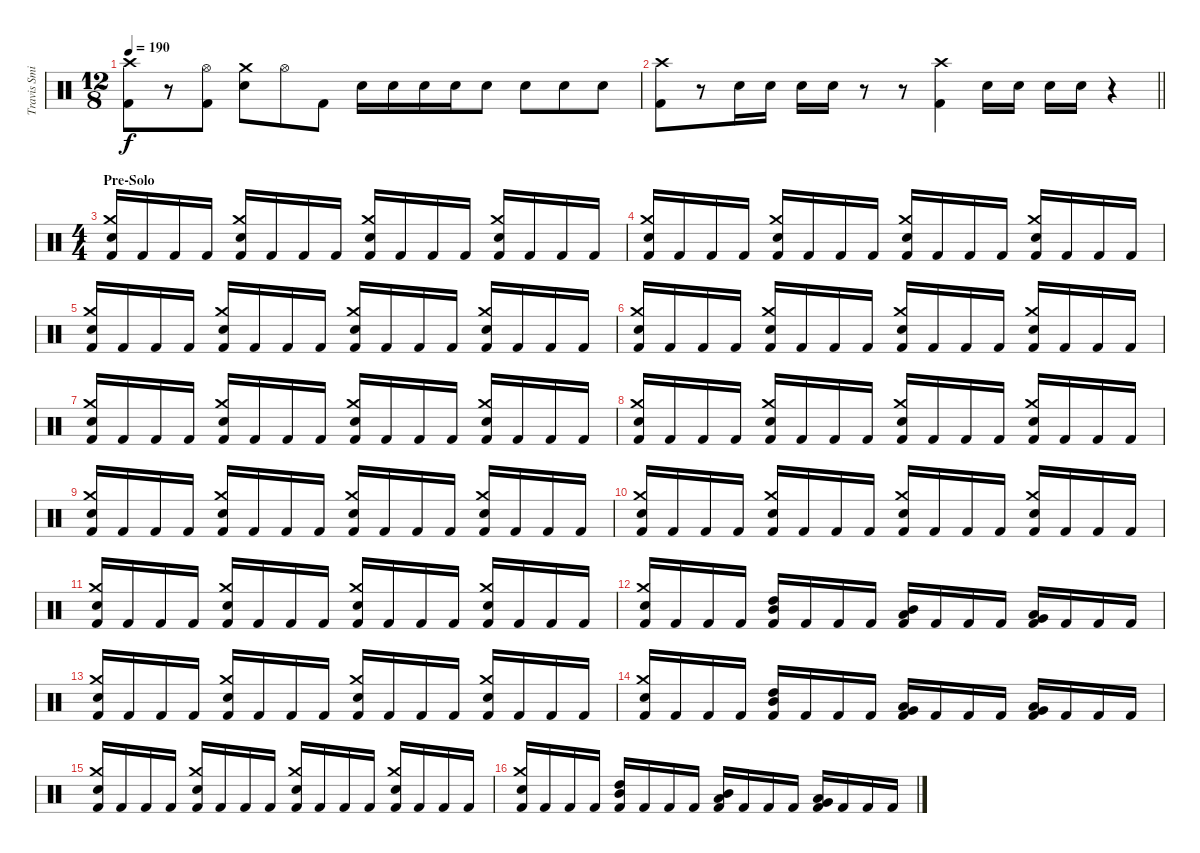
\track ("Travis Smith" "Travis Smi") {instrument percussion}
\staff {score}
\articulation defaults
\ts (12 8)
\tempo 190
\clef neutral
\ks c
("Crash high (hit)" "Kick (hit) 2").8{dy f} r.8 ("Hi-Hat (open)" "Kick (hit) 2").8 ("Crash medium (hit)" "Electric Snare (hit)").8 "Hi-Hat (open)".8 "Kick (hit) 2".8 "Electric Snare (hit)".16 "Electric Snare (hit)".16 "Electric Snare (hit)".16 "Electric Snare (hit)".16 "Electric Snare (hit)".8 "Electric Snare (hit)".8 "Electric Snare (hit)".8 "Electric Snare (hit)".8 |
\barLineRight lightlight
("Crash high (hit)" "Kick (hit) 2").8 r.8 "Electric Snare (hit)".16 "Electric Snare (hit)".16 "Electric Snare (hit)".16 "Electric Snare (hit)".16 r.8 r.8 ("Crash high (hit)" "Kick (hit) 2").4 "Electric Snare (hit)".16 "Electric Snare (hit)".16 "Electric Snare (hit)".16 "Electric Snare (hit)".16 r.4 |
\ts (4 4)
\section ("" "Pre-Solo")
("Crash medium (hit)" "Electric Snare (hit)" "Kick (hit) 2").16 "Kick (hit) 2".16 "Kick (hit) 2".16 "Kick (hit) 2".16 ("Crash medium (hit)" "Electric Snare (hit)" "Kick (hit) 2").16 "Kick (hit) 2".16 "Kick (hit) 2".16 "Kick (hit) 2".16 ("Crash medium (hit)" "Electric Snare (hit)" "Kick (hit) 2").16 "Kick (hit) 2".16 "Kick (hit) 2".16 "Kick (hit) 2".16 ("Crash medium (hit)" "Electric Snare (hit)" "Kick (hit) 2").16 "Kick (hit) 2".16 "Kick (hit) 2".16 "Kick (hit) 2".16 |
("Crash medium (hit)" "Electric Snare (hit)" "Kick (hit) 2").16 "Kick (hit) 2".16 "Kick (hit) 2".16 "Kick (hit) 2".16 ("Crash medium (hit)" "Electric Snare (hit)" "Kick (hit) 2").16 "Kick (hit) 2".16 "Kick (hit) 2".16 "Kick (hit) 2".16 ("Crash medium (hit)" "Electric Snare (hit)" "Kick (hit) 2").16 "Kick (hit) 2".16 "Kick (hit) 2".16 "Kick (hit) 2".16 ("Crash medium (hit)" "Electric Snare (hit)" "Kick (hit) 2").16 "Kick (hit) 2".16 "Kick (hit) 2".16 "Kick (hit) 2".16 |
("Crash medium (hit)" "Electric Snare (hit)" "Kick (hit) 2").16 "Kick (hit) 2".16 "Kick (hit) 2".16 "Kick (hit) 2".16 ("Crash medium (hit)" "Electric Snare (hit)" "Kick (hit) 2").16 "Kick (hit) 2".16 "Kick (hit) 2".16 "Kick (hit) 2".16 ("Crash medium (hit)" "Electric Snare (hit)" "Kick (hit) 2").16 "Kick (hit) 2".16 "Kick (hit) 2".16 "Kick (hit) 2".16 ("Crash medium (hit)" "Electric Snare (hit)" "Kick (hit) 2").16 "Kick (hit) 2".16 "Kick (hit) 2".16 "Kick (hit) 2".16 |
("Crash medium (hit)" "Electric Snare (hit)" "Kick (hit) 2").16 "Kick (hit) 2".16 "Kick (hit) 2".16 "Kick (hit) 2".16 ("Crash medium (hit)" "Electric Snare (hit)" "Kick (hit) 2").16 "Kick (hit) 2".16 "Kick (hit) 2".16 "Kick (hit) 2".16 ("Crash medium (hit)" "Electric Snare (hit)" "Kick (hit) 2").16 "Kick (hit) 2".16 "Kick (hit) 2".16 "Kick (hit) 2".16 ("Crash medium (hit)" "Electric Snare (hit)" "Kick (hit) 2").16 "Kick (hit) 2".16 "Kick (hit) 2".16 "Kick (hit) 2".16 |
("Crash medium (hit)" "Electric Snare (hit)" "Kick (hit) 2").16 "Kick (hit) 2".16 "Kick (hit) 2".16 "Kick (hit) 2".16 ("Crash medium (hit)" "Electric Snare (hit)" "Kick (hit) 2").16 "Kick (hit) 2".16 "Kick (hit) 2".16 "Kick (hit) 2".16 ("Crash medium (hit)" "Electric Snare (hit)" "Kick (hit) 2").16 "Kick (hit) 2".16 "Kick (hit) 2".16 "Kick (hit) 2".16 ("Crash medium (hit)" "Electric Snare (hit)" "Kick (hit) 2").16 "Kick (hit) 2".16 "Kick (hit) 2".16 "Kick (hit) 2".16 |
("Crash medium (hit)" "Electric Snare (hit)" "Kick (hit) 2").16 "Kick (hit) 2".16 "Kick (hit) 2".16 "Kick (hit) 2".16 ("Crash medium (hit)" "Electric Snare (hit)" "Kick (hit) 2").16 "Kick (hit) 2".16 "Kick (hit) 2".16 "Kick (hit) 2".16 ("Crash medium (hit)" "Electric Snare (hit)" "Kick (hit) 2").16 "Kick (hit) 2".16 "Kick (hit) 2".16 "Kick (hit) 2".16 ("Crash medium (hit)" "Electric Snare (hit)" "Kick (hit) 2").16 "Kick (hit) 2".16 "Kick (hit) 2".16 "Kick (hit) 2".16 |
("Crash medium (hit)" "Electric Snare (hit)" "Kick (hit) 2").16 "Kick (hit) 2".16 "Kick (hit) 2".16 "Kick (hit) 2".16 ("Crash medium (hit)" "Electric Snare (hit)" "Kick (hit) 2").16 "Kick (hit) 2".16 "Kick (hit) 2".16 "Kick (hit) 2".16 ("Crash medium (hit)" "Electric Snare (hit)" "Kick (hit) 2").16 "Kick (hit) 2".16 "Kick (hit) 2".16 "Kick (hit) 2".16 ("Crash medium (hit)" "Electric Snare (hit)" "Kick (hit) 2").16 "Kick (hit) 2".16 "Kick (hit) 2".16 "Kick (hit) 2".16 |
("Crash medium (hit)" "Electric Snare (hit)" "Kick (hit) 2").16 "Kick (hit) 2".16 "Kick (hit) 2".16 "Kick (hit) 2".16 ("Crash medium (hit)" "Electric Snare (hit)" "Kick (hit) 2").16 "Kick (hit) 2".16 "Kick (hit) 2".16 "Kick (hit) 2".16 ("Crash medium (hit)" "Electric Snare (hit)" "Kick (hit) 2").16 "Kick (hit) 2".16 "Kick (hit) 2".16 "Kick (hit) 2".16 ("Crash medium (hit)" "Electric Snare (hit)" "Kick (hit) 2").16 "Kick (hit) 2".16 "Kick (hit) 2".16 "Kick (hit) 2".16 |
("Crash medium (hit)" "Electric Snare (hit)" "Kick (hit) 2").16 "Kick (hit) 2".16 "Kick (hit) 2".16 "Kick (hit) 2".16 ("Crash medium (hit)" "Electric Snare (hit)" "Kick (hit) 2").16 "Kick (hit) 2".16 "Kick (hit) 2".16 "Kick (hit) 2".16 ("Crash medium (hit)" "Electric Snare (hit)" "Kick (hit) 2").16 "Kick (hit) 2".16 "Kick (hit) 2".16 "Kick (hit) 2".16 ("Crash medium (hit)" "Electric Snare (hit)" "Kick (hit) 2").16 "Kick (hit) 2".16 "Kick (hit) 2".16 "Kick (hit) 2".16 |
("Crash medium (hit)" "Electric Snare (hit)" "Kick (hit) 2").16 "Kick (hit) 2".16 "Kick (hit) 2".16 "Kick (hit) 2".16 ("High Tom (hit)" "Mid Tom (hit)" "Kick (hit) 2").16 "Kick (hit) 2".16 "Kick (hit) 2".16 "Kick (hit) 2".16 ("Low Tom (hit)" "Mid Tom (hit)" "Kick (hit) 2").16 "Kick (hit) 2".16 "Kick (hit) 2".16 "Kick (hit) 2".16 ("Very Low Tom (hit)" "Low Tom (hit)" "Kick (hit) 2").16 "Kick (hit) 2".16 "Kick (hit) 2".16 "Kick (hit) 2".16 |
("Crash medium (hit)" "Electric Snare (hit)" "Kick (hit) 2").16 "Kick (hit) 2".16 "Kick (hit) 2".16 "Kick (hit) 2".16 ("Crash medium (hit)" "Electric Snare (hit)" "Kick (hit) 2").16 "Kick (hit) 2".16 "Kick (hit) 2".16 "Kick (hit) 2".16 ("Crash medium (hit)" "Electric Snare (hit)" "Kick (hit) 2").16 "Kick (hit) 2".16 "Kick (hit) 2".16 "Kick (hit) 2".16 ("Crash medium (hit)" "Electric Snare (hit)" "Kick (hit) 2").16 "Kick (hit) 2".16 "Kick (hit) 2".16 "Kick (hit) 2".16 |
("Crash medium (hit)" "Electric Snare (hit)" "Kick (hit) 2").16 "Kick (hit) 2".16 "Kick (hit) 2".16 "Kick (hit) 2".16 ("High Tom (hit)" "Mid Tom (hit)" "Kick (hit) 2").16 "Kick (hit) 2".16 "Kick (hit) 2".16 "Kick (hit) 2".16 ("Very Low Tom (hit)" "Low Tom (hit)" "Kick (hit) 2").16 "Kick (hit) 2".16 "Kick (hit) 2".16 "Kick (hit) 2".16 ("Low Floor Tom (hit)" "Very Low Tom (hit)" "Kick (hit) 2").16 "Kick (hit) 2".16 "Kick (hit) 2".16 "Kick (hit) 2".16 |
("Crash medium (hit)" "Electric Snare (hit)" "Kick (hit) 2").16 "Kick (hit) 2".16 "Kick (hit) 2".16 "Kick (hit) 2".16 ("Crash medium (hit)" "Electric Snare (hit)" "Kick (hit) 2").16 "Kick (hit) 2".16 "Kick (hit) 2".16 "Kick (hit) 2".16 ("Crash medium (hit)" "Electric Snare (hit)" "Kick (hit) 2").16 "Kick (hit) 2".16 "Kick (hit) 2".16 "Kick (hit) 2".16 ("Crash medium (hit)" "Electric Snare (hit)" "Kick (hit) 2").16 "Kick (hit) 2".16 "Kick (hit) 2".16 "Kick (hit) 2".16 |
("Crash medium (hit)" "Electric Snare (hit)" "Kick (hit) 2").16 "Kick (hit) 2".16 "Kick (hit) 2".16 "Kick (hit) 2".16 ("High Tom (hit)" "Mid Tom (hit)" "Kick (hit) 2").16 "Kick (hit) 2".16 "Kick (hit) 2".16 "Kick (hit) 2".16 ("Low Tom (hit)" "Mid Tom (hit)" "Kick (hit) 2").16 "Kick (hit) 2".16 "Kick (hit) 2".16 "Kick (hit) 2".16 ("Very Low Tom (hit)" "Low Tom (hit)" "Kick (hit) 2").16 "Kick (hit) 2".16 "Kick (hit) 2".16 "Kick (hit) 2".16
